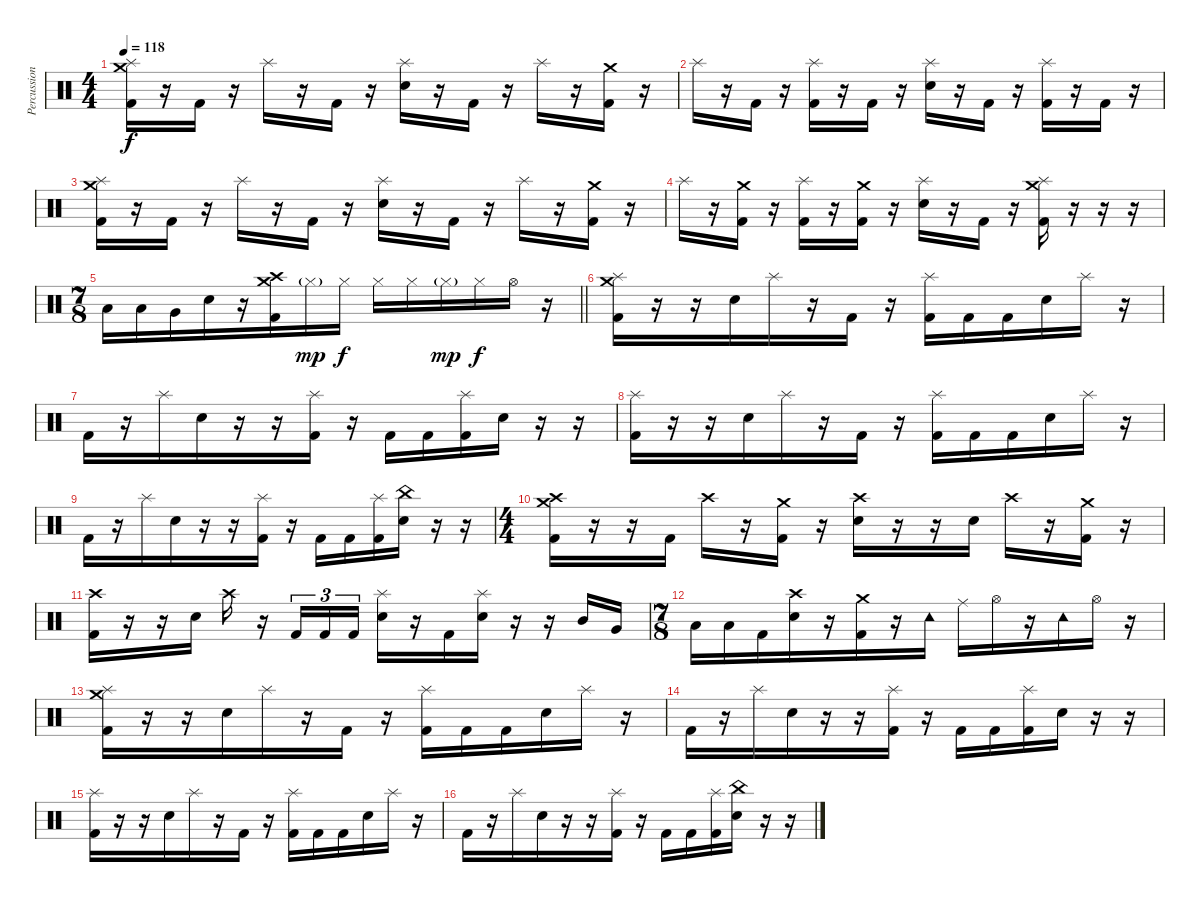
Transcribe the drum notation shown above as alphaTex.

\track ("Percussions" "Percussion") {instrument percussion}
\staff {score}
\articulation defaults
\ts (4 4)
\tempo 118
\clef neutral
\ks c
("Crash medium (hit)" "Splash (hit)" "Kick (hit) 2").16{dy f} r.16 "Kick (hit) 2".16 r.16 "Splash (hit)".16 r.16 "Kick (hit) 2".16 r.16 ("Splash (hit)" "Electric Snare (hit)").16 r.16 "Kick (hit) 2".16 r.16 "Splash (hit)".16 r.16 ("Crash medium (hit)" "Kick (hit) 2").16 r.16 |
"Splash (hit)".16 r.16 "Kick (hit) 2".16 r.16 ("Splash (hit)" "Kick (hit) 2").16 r.16 "Kick (hit) 2".16 r.16 ("Splash (hit)" "Electric Snare (hit)").16 r.16 "Kick (hit) 2".16 r.16 ("Splash (hit)" "Kick (hit) 2").16 r.16 "Kick (hit) 2".16 r.16 |
("Crash medium (hit)" "Splash (hit)" "Kick (hit) 2").16 r.16 "Kick (hit) 2".16 r.16 "Splash (hit)".16 r.16 "Kick (hit) 2".16 r.16 ("Splash (hit)" "Electric Snare (hit)").16 r.16 "Kick (hit) 2".16 r.16 "Splash (hit)".16 r.16 ("Crash medium (hit)" "Kick (hit) 2").16 r.16 |
"Splash (hit)".16 r.16 ("Crash medium (hit)" "Kick (hit) 2").16 r.16 ("Splash (hit)" "Kick (hit) 2").16 r.16 ("Crash medium (hit)" "Kick (hit) 2").16 r.16 ("Splash (hit)" "Electric Snare (hit)").16 r.16 "Kick (hit) 2".16 r.16 ("Crash medium (hit)" "Splash (hit)" "Kick (hit) 2").16 r.16 r.16 r.16 |
\ts (7 8)
\barLineRight lightlight "Low Floor Tom (hit)".16 "Low Tom (hit)".16 "Very Low Tom (hit)".16 "Electric Snare (hit)".16
r.16 ("Crash medium (hit)" "Crash high (hit)" "Kick (hit) 2").16 "Hi-Hat (closed)"{g}.16{dy mp} "Hi-Hat (closed)".16{dy f} "Hi-Hat (closed)".16 "Hi-Hat (closed)".16 "Hi-Hat (closed)"{g}.16{dy mp} "Hi-Hat (closed)".16{dy f} "Hi-Hat (open)".16 r.16 |
\section ("" "")
("Crash medium (hit)" "Splash (hit)" "Kick (hit) 2").16 r.16 r.16 "Electric Snare (hit)".16 "Splash (hit)".16 r.16 "Kick (hit) 2".16 r.16 ("Splash (hit)" "Kick (hit) 2").16 "Kick (hit) 2".16 "Kick (hit) 2".16 "Electric Snare (hit)".16 "Splash (hit)".16 r.16 |
"Kick (hit) 2".16 r.16 "Splash (hit)".16 "Electric Snare (hit)".16 r.16 r.16 ("Splash (hit)" "Kick (hit) 2").16 r.16 "Kick (hit) 2".16 "Kick (hit) 2".16 ("Splash (hit)" "Kick (hit) 2").16 "Electric Snare (hit)".16 r.16 r.16 |
("Splash (hit)" "Kick (hit) 2").16 r.16 r.16 "Electric Snare (hit)".16 "Splash (hit)".16 r.16 "Kick (hit) 2".16 r.16 ("Splash (hit)" "Kick (hit) 2").16 "Kick (hit) 2".16 "Kick (hit) 2".16 "Electric Snare (hit)".16 "Splash (hit)".16 r.16 |
"Kick (hit) 2".16 r.16 "Splash (hit)".16 "Electric Snare (hit)".16 r.16 r.16 ("Splash (hit)" "Kick (hit) 2").16 r.16 "Kick (hit) 2".16 "Kick (hit) 2".16 ("Splash (hit)" "Kick (hit) 2").16 ("China (hit)" "Electric Snare (hit)").16 r.16 r.16 |
\ts (4 4)
("Crash medium (hit)" "Crash high (hit)" "Kick (hit) 2").16 r.16 r.16 "Kick (hit) 2".16 "Crash high (hit)".16 r.16 ("Crash medium (hit)" "Kick (hit) 2").16 r.16 ("Crash high (hit)" "Electric Snare (hit)").16 r.16 r.16 "Electric Snare (hit)".16 "Crash high (hit)".16 r.16 ("Crash medium (hit)" "Kick (hit) 2").16 r.16 |
("Crash high (hit)" "Kick (hit) 2").16 r.16 r.16 "Electric Snare (hit)".16 "Crash high (hit)".16 r.16 "Kick (hit) 2".16{tu (3 2)} "Kick (hit) 2".16{tu (3 2)} "Kick (hit) 2".16{tu (3 2)} ("Splash (hit)" "Electric Snare (hit)").16 r.16 "Kick (hit) 2".16 ("Splash (hit)" "Electric Snare (hit)").16 r.16 r.16 "Mid Tom (hit)".16 "Very Low Tom (hit)".16 |
\ts (7 8)
"Low Tom (hit)".16 "Low Floor Tom (hit)".16 "Kick (hit) 2".16 ("Crash high (hit)" "Electric Snare (hit)").16 r.16 ("Crash medium (hit)" "Kick (hit) 2").16 r.16 "Tambourine (hit)".16 "Ride (middle)".16 "Hi-Hat (open)".16 r.16 "Tambourine (hit)".16 "Hi-Hat (open)".16 r.16 |
("Crash medium (hit)" "Splash (hit)" "Kick (hit) 2").16 r.16 r.16 "Electric Snare (hit)".16 "Splash (hit)".16 r.16 "Kick (hit) 2".16 r.16 ("Splash (hit)" "Kick (hit) 2").16 "Kick (hit) 2".16 "Kick (hit) 2".16 "Electric Snare (hit)".16 "Splash (hit)".16 r.16 |
"Kick (hit) 2".16 r.16 "Splash (hit)".16 "Electric Snare (hit)".16 r.16 r.16 ("Splash (hit)" "Kick (hit) 2").16 r.16 "Kick (hit) 2".16 "Kick (hit) 2".16 ("Splash (hit)" "Kick (hit) 2").16 "Electric Snare (hit)".16 r.16 r.16 |
("Splash (hit)" "Kick (hit) 2").16 r.16 r.16 "Electric Snare (hit)".16 "Splash (hit)".16 r.16 "Kick (hit) 2".16 r.16 ("Splash (hit)" "Kick (hit) 2").16 "Kick (hit) 2".16 "Kick (hit) 2".16 "Electric Snare (hit)".16 "Splash (hit)".16 r.16 |
"Kick (hit) 2".16 r.16 "Splash (hit)".16 "Electric Snare (hit)".16 r.16 r.16 ("Splash (hit)" "Kick (hit) 2").16 r.16 "Kick (hit) 2".16 "Kick (hit) 2".16 ("Splash (hit)" "Kick (hit) 2").16 ("China (hit)" "Electric Snare (hit)").16 r.16 r.16
